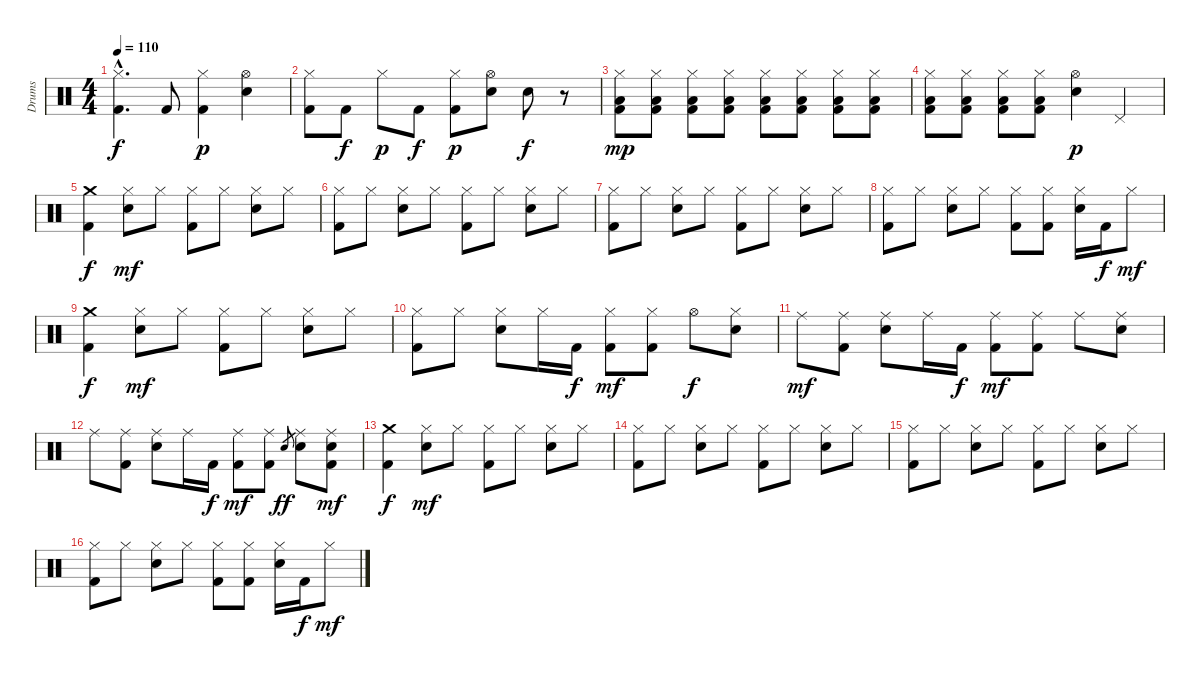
\track ("Drums" "Drums") {instrument percussion}
\staff {score}
\articulation defaults
\ts (4 4)
\tempo 110
\clef neutral
\ks c
("Hi-Hat (closed)"{hac} "Kick (hit) 2"{hac}).4{d dy f} "Kick (hit) 2".8 ("Hi-Hat (closed)" "Kick (hit) 2").4{dy p} ("Hi-Hat (open)" "Electric Snare (hit)").4 |
("Hi-Hat (closed)" "Kick (hit) 2").8 "Kick (hit) 2".8{dy f} "Hi-Hat (closed)".8{dy p} "Kick (hit) 2".8{dy f} ("Hi-Hat (closed)" "Kick (hit) 2").8{dy p} ("Hi-Hat (open)" "Electric Snare (hit)").8 "Electric Snare (hit)".8{dy f} r.8 |
("Hi-Hat (closed)" "Low Floor Tom (hit)" "Kick (hit) 2").8{dy mp} ("Hi-Hat (closed)" "Low Floor Tom (hit)" "Kick (hit) 2").8 ("Hi-Hat (closed)" "Low Floor Tom (hit)" "Kick (hit) 2").8 ("Hi-Hat (closed)" "Low Floor Tom (hit)" "Kick (hit) 2").8 ("Hi-Hat (closed)" "Low Floor Tom (hit)" "Kick (hit) 2").8 ("Hi-Hat (closed)" "Low Floor Tom (hit)" "Kick (hit) 2").8 ("Hi-Hat (closed)" "Low Floor Tom (hit)" "Kick (hit) 2").8 ("Hi-Hat (closed)" "Low Floor Tom (hit)" "Kick (hit) 2").8 |
("Hi-Hat (closed)" "Low Floor Tom (hit)" "Kick (hit) 2").8 ("Hi-Hat (closed)" "Low Floor Tom (hit)" "Kick (hit) 2").8 ("Hi-Hat (closed)" "Low Floor Tom (hit)" "Kick (hit) 2").8 ("Hi-Hat (closed)" "Low Floor Tom (hit)" "Kick (hit) 2").8 ("Hi-Hat (open)" "Electric Snare (hit)").4{dy p} "Pedal Hi-Hat (hit)".4 |
("Crash medium (hit)" "Kick (hit) 2").4{dy f} ("Hi-Hat (closed)" "Electric Snare (hit)").8{dy mf} "Hi-Hat (closed)".8 ("Hi-Hat (closed)" "Kick (hit) 2").8 "Hi-Hat (closed)".8 ("Hi-Hat (closed)" "Electric Snare (hit)").8 "Hi-Hat (closed)".8 |
("Hi-Hat (closed)" "Kick (hit) 2").8 "Hi-Hat (closed)".8 ("Hi-Hat (closed)" "Electric Snare (hit)").8 "Hi-Hat (closed)".8 ("Hi-Hat (closed)" "Kick (hit) 2").8 "Hi-Hat (closed)".8 ("Hi-Hat (closed)" "Electric Snare (hit)").8 "Hi-Hat (closed)".8 |
("Hi-Hat (closed)" "Kick (hit) 2").8 "Hi-Hat (closed)".8 ("Hi-Hat (closed)" "Electric Snare (hit)").8 "Hi-Hat (closed)".8 ("Hi-Hat (closed)" "Kick (hit) 2").8 "Hi-Hat (closed)".8 ("Hi-Hat (closed)" "Electric Snare (hit)").8 "Hi-Hat (closed)".8 |
("Hi-Hat (closed)" "Kick (hit) 2").8 "Hi-Hat (closed)".8 ("Hi-Hat (closed)" "Electric Snare (hit)").8 "Hi-Hat (closed)".8 ("Hi-Hat (closed)" "Kick (hit) 2").8 ("Hi-Hat (closed)" "Kick (hit) 2").8 ("Hi-Hat (closed)" "Electric Snare (hit)").16 "Kick (hit) 2".16{dy f} "Hi-Hat (closed)".8{dy mf} |
("Crash medium (hit)" "Kick (hit) 2").4{dy f} ("Hi-Hat (closed)" "Electric Snare (hit)").8{dy mf} "Hi-Hat (closed)".8 ("Hi-Hat (closed)" "Kick (hit) 2").8 "Hi-Hat (closed)".8 ("Hi-Hat (closed)" "Electric Snare (hit)").8 "Hi-Hat (closed)".8 |
("Hi-Hat (closed)" "Kick (hit) 2").8 "Hi-Hat (closed)".8 ("Hi-Hat (closed)" "Electric Snare (hit)").8 "Hi-Hat (closed)".16 "Kick (hit) 2".16{dy f} ("Hi-Hat (closed)" "Kick (hit) 2").8{dy mf} ("Hi-Hat (closed)" "Kick (hit) 2").8 "Hi-Hat (open)".8{dy f} ("Hi-Hat (closed)" "Electric Snare (hit)").8 |
"Ride (middle)".8{dy mf} ("Ride (middle)" "Kick (hit) 2").8 ("Ride (middle)" "Electric Snare (hit)").8 "Ride (middle)".16 "Kick (hit) 2".16{dy f} ("Ride (middle)" "Kick (hit) 2").8{dy mf} ("Ride (middle)" "Kick (hit) 2").8 "Ride (middle)".8 ("Ride (middle)" "Electric Snare (hit)").8 |
"Ride (middle)".8 ("Ride (middle)" "Kick (hit) 2").8 ("Ride (middle)" "Electric Snare (hit)").8 "Ride (middle)".16 "Kick (hit) 2".16{dy f} ("Ride (middle)" "Kick (hit) 2").8{dy mf} ("Ride (middle)" "Kick (hit) 2").8 "Electric Snare (hit)".8{gr dy ff} ("Ride (middle)" "Electric Snare (hit)").8 ("Ride (middle)" "Electric Snare (hit)" "Kick (hit) 2").8{dy mf} |
("Crash medium (hit)" "Kick (hit) 2").4{dy f} ("Hi-Hat (closed)" "Electric Snare (hit)").8{dy mf} "Hi-Hat (closed)".8 ("Hi-Hat (closed)" "Kick (hit) 2").8 "Hi-Hat (closed)".8 ("Hi-Hat (closed)" "Electric Snare (hit)").8 "Hi-Hat (closed)".8 |
("Hi-Hat (closed)" "Kick (hit) 2").8 "Hi-Hat (closed)".8 ("Hi-Hat (closed)" "Electric Snare (hit)").8 "Hi-Hat (closed)".8 ("Hi-Hat (closed)" "Kick (hit) 2").8 "Hi-Hat (closed)".8 ("Hi-Hat (closed)" "Electric Snare (hit)").8 "Hi-Hat (closed)".8 |
("Hi-Hat (closed)" "Kick (hit) 2").8 "Hi-Hat (closed)".8 ("Hi-Hat (closed)" "Electric Snare (hit)").8 "Hi-Hat (closed)".8 ("Hi-Hat (closed)" "Kick (hit) 2").8 "Hi-Hat (closed)".8 ("Hi-Hat (closed)" "Electric Snare (hit)").8 "Hi-Hat (closed)".8 |
("Hi-Hat (closed)" "Kick (hit) 2").8 "Hi-Hat (closed)".8 ("Hi-Hat (closed)" "Electric Snare (hit)").8 "Hi-Hat (closed)".8 ("Hi-Hat (closed)" "Kick (hit) 2").8 ("Hi-Hat (closed)" "Kick (hit) 2").8 ("Hi-Hat (closed)" "Electric Snare (hit)").16 "Kick (hit) 2".16{dy f} "Hi-Hat (closed)".8{dy mf}
